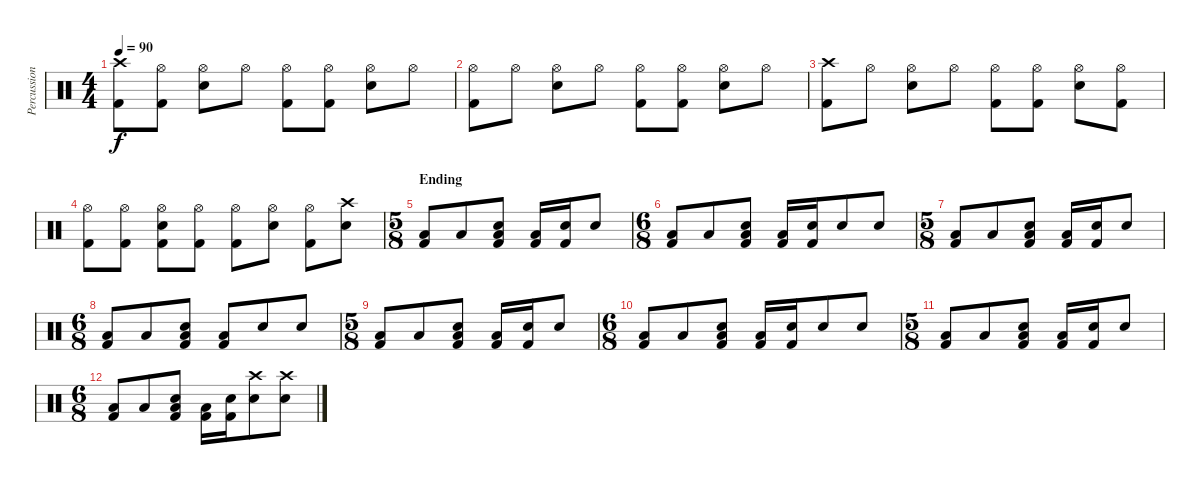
\track ("Percussion" "Percussion") {instrument percussion}
\staff {score}
\articulation defaults
\ts (4 4)
\tempo 90
\clef neutral
\ks c
("Crash high (hit)" "Kick (hit) 2").8{dy f} ("Hi-Hat (open)" "Kick (hit) 2").8 ("Hi-Hat (open)" "Electric Snare (hit)").8 "Hi-Hat (open)".8 ("Hi-Hat (open)" "Kick (hit) 2").8 ("Hi-Hat (open)" "Kick (hit) 2").8 ("Hi-Hat (open)" "Electric Snare (hit)").8 "Hi-Hat (open)".8 |
("Hi-Hat (open)" "Kick (hit) 2").8 "Hi-Hat (open)".8 ("Hi-Hat (open)" "Electric Snare (hit)").8 "Hi-Hat (open)".8 ("Hi-Hat (open)" "Kick (hit) 2").8 ("Hi-Hat (open)" "Kick (hit) 2").8 ("Hi-Hat (open)" "Electric Snare (hit)").8 "Hi-Hat (open)".8 |
("Crash high (hit)" "Kick (hit) 2").8 "Hi-Hat (open)".8 ("Hi-Hat (open)" "Electric Snare (hit)").8 "Hi-Hat (open)".8 ("Hi-Hat (open)" "Kick (hit) 2").8 ("Hi-Hat (open)" "Kick (hit) 2").8 ("Hi-Hat (open)" "Electric Snare (hit)").8 ("Hi-Hat (open)" "Kick (hit) 2").8 |
("Hi-Hat (open)" "Kick (hit) 2").8 ("Hi-Hat (open)" "Kick (hit) 2").8 ("Hi-Hat (open)" "Electric Snare (hit)" "Kick (hit) 2").8 ("Hi-Hat (open)" "Kick (hit) 2").8 ("Hi-Hat (open)" "Kick (hit) 2").8 ("Hi-Hat (open)" "Electric Snare (hit)").8 ("Hi-Hat (open)" "Kick (hit) 2").8 ("Crash high (hit)" "Electric Snare (hit)").8 |
\ts (5 8)
\section ("" "Ending")
("Kick (hit) 2" "Low Tom (hit)").8 "Low Tom (hit)".8 ("Electric Snare (hit)" "Kick (hit) 2" "Low Tom (hit)").8 ("Kick (hit) 2" "Low Tom (hit)").16 ("Electric Snare (hit)" "Kick (hit) 2").16 "Electric Snare (hit)".8 |
\ts (6 8)
("Kick (hit) 2" "Low Tom (hit)").8 "Low Tom (hit)".8 ("Electric Snare (hit)" "Kick (hit) 2" "Low Tom (hit)").8 ("Kick (hit) 2" "Low Tom (hit)").16 ("Electric Snare (hit)" "Kick (hit) 2").16 "Electric Snare (hit)".8 "Electric Snare (hit)".8 |
\ts (5 8)
("Kick (hit) 2" "Low Tom (hit)").8 "Low Tom (hit)".8 ("Electric Snare (hit)" "Kick (hit) 2" "Low Tom (hit)").8 ("Kick (hit) 2" "Low Tom (hit)").16 ("Electric Snare (hit)" "Kick (hit) 2").16 "Electric Snare (hit)".8 |
\ts (6 8)
("Kick (hit) 2" "Low Tom (hit)").8 "Low Tom (hit)".8 ("Electric Snare (hit)" "Kick (hit) 2" "Low Tom (hit)").8 ("Kick (hit) 2" "Low Tom (hit)").8 "Electric Snare (hit)".8 "Electric Snare (hit)".8 |
\ts (5 8)
("Kick (hit) 2" "Low Tom (hit)").8 "Low Tom (hit)".8 ("Electric Snare (hit)" "Kick (hit) 2" "Low Tom (hit)").8 ("Kick (hit) 2" "Low Tom (hit)").16 ("Electric Snare (hit)" "Kick (hit) 2").16 "Electric Snare (hit)".8 |
\ts (6 8)
("Kick (hit) 2" "Low Tom (hit)").8 "Low Tom (hit)".8 ("Electric Snare (hit)" "Kick (hit) 2" "Low Tom (hit)").8 ("Kick (hit) 2" "Low Tom (hit)").16 ("Electric Snare (hit)" "Kick (hit) 2").16 "Electric Snare (hit)".8 "Electric Snare (hit)".8 |
\ts (5 8)
("Kick (hit) 2" "Low Tom (hit)").8 "Low Tom (hit)".8 ("Electric Snare (hit)" "Kick (hit) 2" "Low Tom (hit)").8 ("Kick (hit) 2" "Low Tom (hit)").16 ("Electric Snare (hit)" "Kick (hit) 2").16 "Electric Snare (hit)".8 |
\ts (6 8)
("Kick (hit) 2" "Low Tom (hit)").8 "Low Tom (hit)".8 ("Electric Snare (hit)" "Kick (hit) 2" "Low Tom (hit)").8 ("Kick (hit) 2" "Low Tom (hit)").16 ("Electric Snare (hit)" "Kick (hit) 2").16 ("Crash high (hit)" "Electric Snare (hit)").8 ("Crash high (hit)" "Electric Snare (hit)").8
